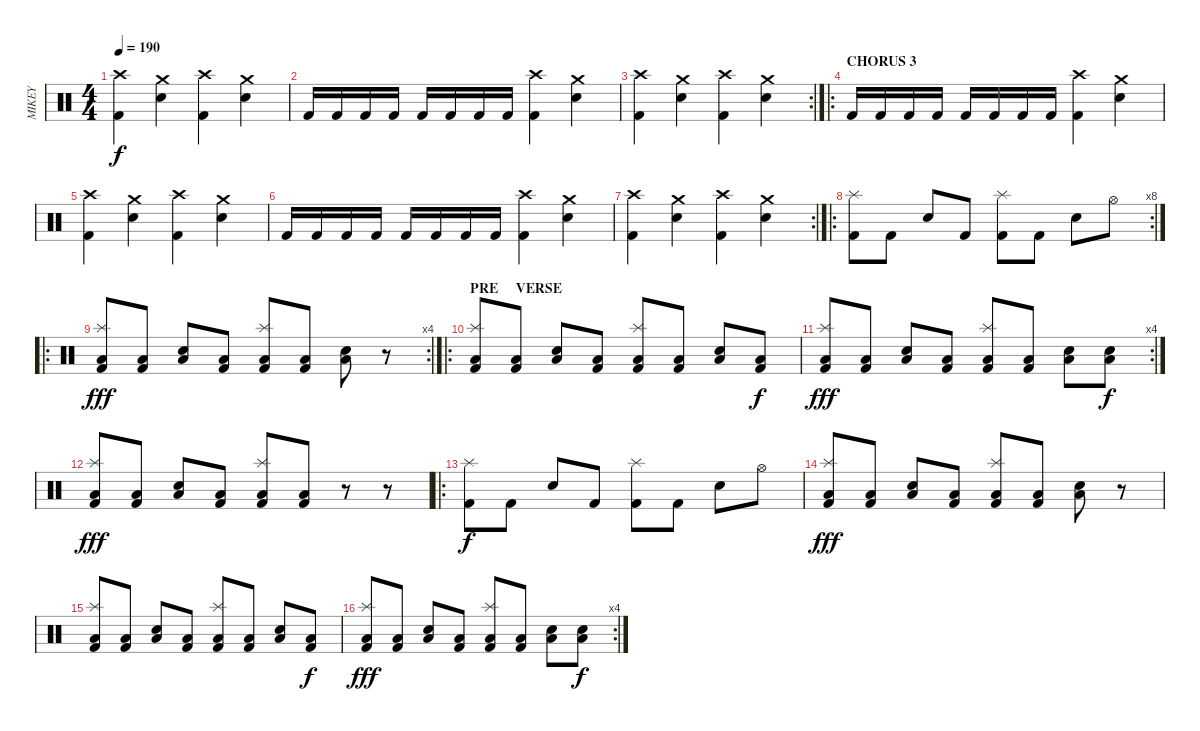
\track ("MIKEY" "MIKEY") {instrument percussion}
\staff {score}
\articulation defaults
\ts (4 4)
\tempo 190
\clef neutral
\ks c
("Crash high (hit)" "Kick (hit) 2").4{dy f} ("Crash medium (hit)" "Snare (hit) 2").4 ("Crash high (hit)" "Kick (hit) 2").4 ("Crash medium (hit)" "Snare (hit) 2").4 |
"Kick (hit) 2".16 "Kick (hit) 2".16 "Kick (hit) 2".16 "Kick (hit) 2".16 "Kick (hit) 2".16 "Kick (hit) 2".16 "Kick (hit) 2".16 "Kick (hit) 2".16 ("Crash high (hit)" "Kick (hit) 2").4 ("Crash medium (hit)" "Snare (hit) 2").4 |
\rc 2
("Crash high (hit)" "Kick (hit) 2").4 ("Crash medium (hit)" "Snare (hit) 2").4 ("Crash high (hit)" "Kick (hit) 2").4 ("Crash medium (hit)" "Snare (hit) 2").4 |
\ro
\section ("" "CHORUS 3")
"Kick (hit) 2".16 "Kick (hit) 2".16 "Kick (hit) 2".16 "Kick (hit) 2".16 "Kick (hit) 2".16 "Kick (hit) 2".16 "Kick (hit) 2".16 "Kick (hit) 2".16 ("Crash high (hit)" "Kick (hit) 2").4 ("Crash medium (hit)" "Snare (hit) 2").4 |
("Crash high (hit)" "Kick (hit) 2").4 ("Crash medium (hit)" "Snare (hit) 2").4 ("Crash high (hit)" "Kick (hit) 2").4 ("Crash medium (hit)" "Snare (hit) 2").4 |
"Kick (hit) 2".16 "Kick (hit) 2".16 "Kick (hit) 2".16 "Kick (hit) 2".16 "Kick (hit) 2".16 "Kick (hit) 2".16 "Kick (hit) 2".16 "Kick (hit) 2".16 ("Crash high (hit)" "Kick (hit) 2").4 ("Crash medium (hit)" "Snare (hit) 2").4 |
\rc 2
("Crash high (hit)" "Kick (hit) 2").4 ("Crash medium (hit)" "Snare (hit) 2").4 ("Crash high (hit)" "Kick (hit) 2").4 ("Crash medium (hit)" "Snare (hit) 2").4 |
\ro
\rc 8
("Splash (hit)" "Kick (hit) 2").8 "Kick (hit) 2".8 "Snare (hit) 2".8 "Kick (hit) 2".8 ("Splash (hit)" "Kick (hit) 2").8 "Kick (hit) 2".8 "Snare (hit) 2".8 "Hi-Hat (open)".8 |
\ro
\rc 4
("Low Floor Tom (hit)" "Splash (hit)" "Kick (hit) 2").8{dy fff} ("Low Floor Tom (hit)" "Kick (hit) 2").8 ("Low Floor Tom (hit)" "Snare (hit) 2").8 ("Low Floor Tom (hit)" "Kick (hit) 2").8 ("Low Floor Tom (hit)" "Splash (hit)" "Kick (hit) 2").8 ("Low Floor Tom (hit)" "Kick (hit) 2").8 ("Low Floor Tom (hit)" "Snare (hit) 2").8 r.8 |
\ro
\section ("" "PRE     VERSE")
("Low Floor Tom (hit)" "Splash (hit)" "Kick (hit) 2").8 ("Low Floor Tom (hit)" "Kick (hit) 2").8 ("Low Floor Tom (hit)" "Snare (hit) 2").8 ("Low Floor Tom (hit)" "Kick (hit) 2").8 ("Low Floor Tom (hit)" "Splash (hit)" "Kick (hit) 2").8 ("Low Floor Tom (hit)" "Kick (hit) 2").8 ("Low Floor Tom (hit)" "Snare (hit) 2").8 ("Low Floor Tom (hit)" "Kick (hit) 2").8{dy f} |
\rc 4
("Low Floor Tom (hit)" "Splash (hit)" "Kick (hit) 2").8{dy fff} ("Low Floor Tom (hit)" "Kick (hit) 2").8 ("Low Floor Tom (hit)" "Snare (hit) 2").8 ("Low Floor Tom (hit)" "Kick (hit) 2").8 ("Low Floor Tom (hit)" "Splash (hit)" "Kick (hit) 2").8 ("Low Floor Tom (hit)" "Kick (hit) 2").8 ("Low Floor Tom (hit)" "Snare (hit) 2").8 ("Low Floor Tom (hit)" "Snare (hit) 2").8{dy f} |
("Low Floor Tom (hit)" "Splash (hit)" "Kick (hit) 2").8{dy fff} ("Low Floor Tom (hit)" "Kick (hit) 2").8 ("Low Floor Tom (hit)" "Snare (hit) 2").8 ("Low Floor Tom (hit)" "Kick (hit) 2").8 ("Low Floor Tom (hit)" "Splash (hit)" "Kick (hit) 2").8 ("Low Floor Tom (hit)" "Kick (hit) 2").8 r.8 r.8 |
\ro
("Splash (hit)" "Kick (hit) 2").8{dy f} "Kick (hit) 2".8 "Snare (hit) 2".8 "Kick (hit) 2".8 ("Splash (hit)" "Kick (hit) 2").8 "Kick (hit) 2".8 "Snare (hit) 2".8 "Hi-Hat (open)".8 |
("Low Floor Tom (hit)" "Splash (hit)" "Kick (hit) 2").8{dy fff} ("Low Floor Tom (hit)" "Kick (hit) 2").8 ("Low Floor Tom (hit)" "Snare (hit) 2").8 ("Low Floor Tom (hit)" "Kick (hit) 2").8 ("Low Floor Tom (hit)" "Splash (hit)" "Kick (hit) 2").8 ("Low Floor Tom (hit)" "Kick (hit) 2").8 ("Low Floor Tom (hit)" "Snare (hit) 2").8 r.8 |
("Low Floor Tom (hit)" "Splash (hit)" "Kick (hit) 2").8 ("Low Floor Tom (hit)" "Kick (hit) 2").8 ("Low Floor Tom (hit)" "Snare (hit) 2").8 ("Low Floor Tom (hit)" "Kick (hit) 2").8 ("Low Floor Tom (hit)" "Splash (hit)" "Kick (hit) 2").8 ("Low Floor Tom (hit)" "Kick (hit) 2").8 ("Low Floor Tom (hit)" "Snare (hit) 2").8 ("Low Floor Tom (hit)" "Kick (hit) 2").8{dy f} |
\rc 4
("Low Floor Tom (hit)" "Splash (hit)" "Kick (hit) 2").8{dy fff} ("Low Floor Tom (hit)" "Kick (hit) 2").8 ("Low Floor Tom (hit)" "Snare (hit) 2").8 ("Low Floor Tom (hit)" "Kick (hit) 2").8 ("Low Floor Tom (hit)" "Splash (hit)" "Kick (hit) 2").8 ("Low Floor Tom (hit)" "Kick (hit) 2").8 ("Low Floor Tom (hit)" "Snare (hit) 2").8 ("Low Floor Tom (hit)" "Snare (hit) 2").8{dy f}
